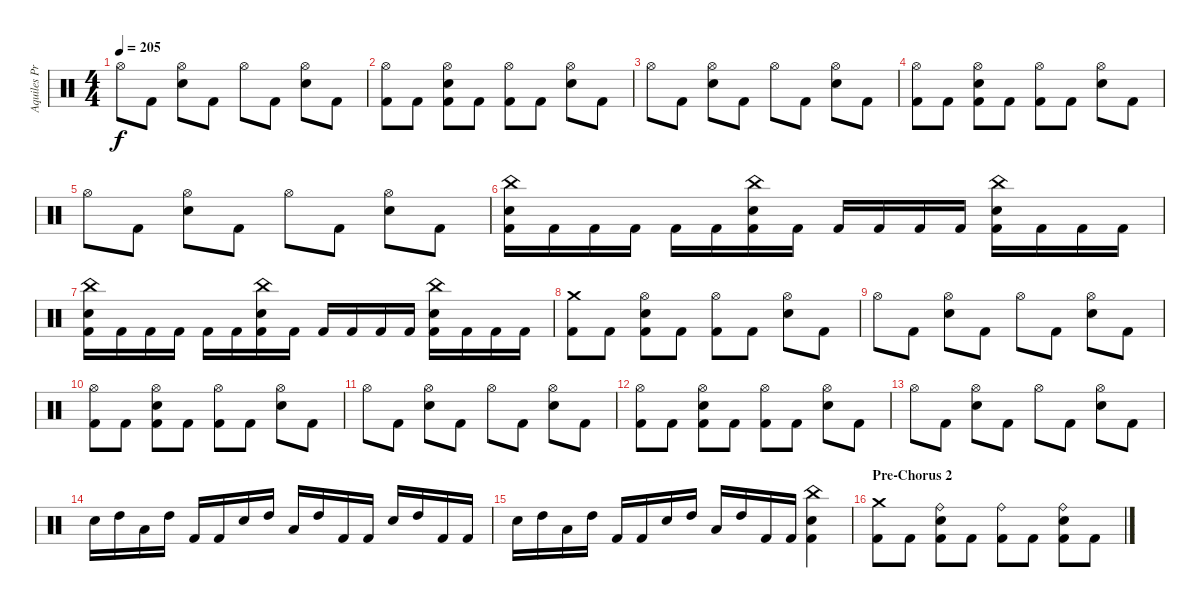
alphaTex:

\track ("Aquiles Priester" "Aquiles Pr") {instrument percussion}
\staff {score}
\articulation defaults
\ts (4 4)
\tempo 205
\clef neutral
\ks c "Hi-Hat (open)".8{dy f} "Kick (hit) 2".8
("Hi-Hat (open)" "Electric Snare (hit)").8 "Kick (hit) 2".8 "Hi-Hat (open)".8 "Kick (hit) 2".8 ("Hi-Hat (open)" "Electric Snare (hit)").8 "Kick (hit) 2".8 |
("Hi-Hat (open)" "Kick (hit) 2").8 "Kick (hit) 2".8 ("Hi-Hat (open)" "Electric Snare (hit)" "Kick (hit) 2").8 "Kick (hit) 2".8 ("Hi-Hat (open)" "Kick (hit) 2").8 "Kick (hit) 2".8 ("Hi-Hat (open)" "Electric Snare (hit)").8 "Kick (hit) 2".8 |
"Hi-Hat (open)".8 "Kick (hit) 2".8 ("Hi-Hat (open)" "Electric Snare (hit)").8 "Kick (hit) 2".8 "Hi-Hat (open)".8 "Kick (hit) 2".8 ("Hi-Hat (open)" "Electric Snare (hit)").8 "Kick (hit) 2".8 |
("Hi-Hat (open)" "Kick (hit) 2").8 "Kick (hit) 2".8 ("Hi-Hat (open)" "Electric Snare (hit)" "Kick (hit) 2").8 "Kick (hit) 2".8 ("Hi-Hat (open)" "Kick (hit) 2").8 "Kick (hit) 2".8 ("Hi-Hat (open)" "Electric Snare (hit)").8 "Kick (hit) 2".8 |
"Hi-Hat (open)".8 "Kick (hit) 2".8 ("Hi-Hat (open)" "Electric Snare (hit)").8 "Kick (hit) 2".8 "Hi-Hat (open)".8 "Kick (hit) 2".8 ("Hi-Hat (open)" "Electric Snare (hit)").8 "Kick (hit) 2".8 |
("China (hit)" "Electric Snare (hit)" "Kick (hit) 2").16 "Kick (hit) 2".16 "Kick (hit) 2".16 "Kick (hit) 2".16 "Kick (hit) 2".16 "Kick (hit) 2".16 ("China (hit)" "Electric Snare (hit)" "Kick (hit) 2").16 "Kick (hit) 2".16 "Kick (hit) 2".16 "Kick (hit) 2".16 "Kick (hit) 2".16 "Kick (hit) 2".16 ("China (hit)" "Electric Snare (hit)" "Kick (hit) 2").16 "Kick (hit) 2".16 "Kick (hit) 2".16 "Kick (hit) 2".16 |
("China (hit)" "Electric Snare (hit)" "Kick (hit) 2").16 "Kick (hit) 2".16 "Kick (hit) 2".16 "Kick (hit) 2".16 "Kick (hit) 2".16 "Kick (hit) 2".16 ("China (hit)" "Electric Snare (hit)" "Kick (hit) 2").16 "Kick (hit) 2".16 "Kick (hit) 2".16 "Kick (hit) 2".16 "Kick (hit) 2".16 "Kick (hit) 2".16 ("China (hit)" "Electric Snare (hit)" "Kick (hit) 2").16 "Kick (hit) 2".16 "Kick (hit) 2".16 "Kick (hit) 2".16 |
("Crash medium (hit)" "Kick (hit) 2").8 "Kick (hit) 2".8 ("Hi-Hat (open)" "Electric Snare (hit)" "Kick (hit) 2").8 "Kick (hit) 2".8 ("Hi-Hat (open)" "Kick (hit) 2").8 "Kick (hit) 2".8 ("Hi-Hat (open)" "Electric Snare (hit)").8 "Kick (hit) 2".8 |
"Hi-Hat (open)".8 "Kick (hit) 2".8 ("Hi-Hat (open)" "Electric Snare (hit)").8 "Kick (hit) 2".8 "Hi-Hat (open)".8 "Kick (hit) 2".8 ("Hi-Hat (open)" "Electric Snare (hit)").8 "Kick (hit) 2".8 |
("Hi-Hat (open)" "Kick (hit) 2").8 "Kick (hit) 2".8 ("Hi-Hat (open)" "Electric Snare (hit)" "Kick (hit) 2").8 "Kick (hit) 2".8 ("Hi-Hat (open)" "Kick (hit) 2").8 "Kick (hit) 2".8 ("Hi-Hat (open)" "Electric Snare (hit)").8 "Kick (hit) 2".8 |
"Hi-Hat (open)".8 "Kick (hit) 2".8 ("Hi-Hat (open)" "Electric Snare (hit)").8 "Kick (hit) 2".8 "Hi-Hat (open)".8 "Kick (hit) 2".8 ("Hi-Hat (open)" "Electric Snare (hit)").8 "Kick (hit) 2".8 |
("Hi-Hat (open)" "Kick (hit) 2").8 "Kick (hit) 2".8 ("Hi-Hat (open)" "Electric Snare (hit)" "Kick (hit) 2").8 "Kick (hit) 2".8 ("Hi-Hat (open)" "Kick (hit) 2").8 "Kick (hit) 2".8 ("Hi-Hat (open)" "Electric Snare (hit)").8 "Kick (hit) 2".8 |
"Hi-Hat (open)".8 "Kick (hit) 2".8 ("Hi-Hat (open)" "Electric Snare (hit)").8 "Kick (hit) 2".8 "Hi-Hat (open)".8 "Kick (hit) 2".8 ("Hi-Hat (open)" "Electric Snare (hit)").8 "Kick (hit) 2".8 |
"Electric Snare (hit)".16 "High Tom (hit)".16 "Low Tom (hit)".16 "High Tom (hit)".16 "Kick (hit) 2".16 "Kick (hit) 2".16 "Electric Snare (hit)".16 "High Tom (hit)".16 "Low Tom (hit)".16 "High Tom (hit)".16 "Kick (hit) 2".16 "Kick (hit) 2".16 "Electric Snare (hit)".16 "High Tom (hit)".16 "Kick (hit) 2".16 "Kick (hit) 2".16 |
"Electric Snare (hit)".16 "High Tom (hit)".16 "Low Tom (hit)".16 "High Tom (hit)".16 "Kick (hit) 2".16 "Kick (hit) 2".16 "Electric Snare (hit)".16 "High Tom (hit)".16 "Low Tom (hit)".16 "High Tom (hit)".16 "Kick (hit) 2".16 "Kick (hit) 2".16 ("China (hit)" "Electric Snare (hit)" "Kick (hit) 2").4 |
\section ("" "Pre-Chorus 2")
("Crash medium (hit)" "Kick (hit) 2").8 "Kick (hit) 2".8 ("Ride (bell)" "Electric Snare (hit)" "Kick (hit) 2").8 "Kick (hit) 2".8 ("Ride (bell)" "Kick (hit) 2").8 "Kick (hit) 2".8 ("Ride (bell)" "Electric Snare (hit)" "Kick (hit) 2").8 "Kick (hit) 2".8
